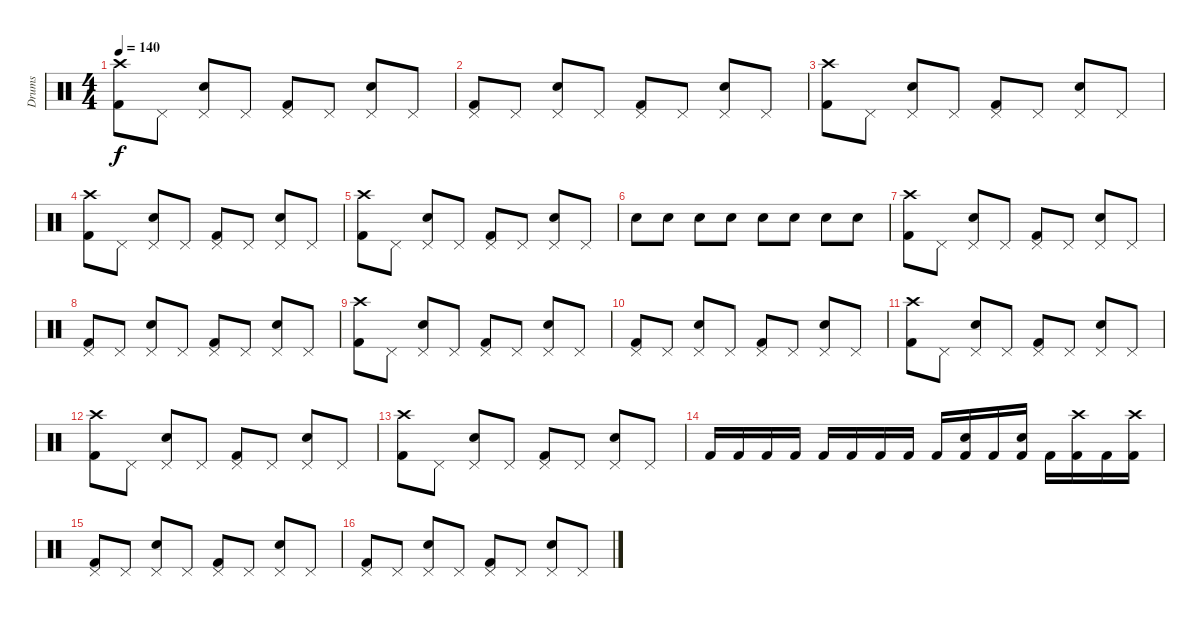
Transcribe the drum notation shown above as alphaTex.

\track ("Drums" "Drums") {instrument percussion}
\staff {score}
\articulation defaults
\ts (4 4)
\tempo 140
\clef neutral
\ks c
("Crash high (hit)" "Kick (hit) 2").8{dy f} "Pedal Hi-Hat (hit)".8 ("Pedal Hi-Hat (hit)" "Snare (hit) 2").8 "Pedal Hi-Hat (hit)".8 ("Pedal Hi-Hat (hit)" "Kick (hit) 2").8 "Pedal Hi-Hat (hit)".8 ("Pedal Hi-Hat (hit)" "Snare (hit) 2").8 "Pedal Hi-Hat (hit)".8 |
("Pedal Hi-Hat (hit)" "Kick (hit) 2").8 "Pedal Hi-Hat (hit)".8 ("Pedal Hi-Hat (hit)" "Snare (hit) 2").8 "Pedal Hi-Hat (hit)".8 ("Pedal Hi-Hat (hit)" "Kick (hit) 2").8 "Pedal Hi-Hat (hit)".8 ("Pedal Hi-Hat (hit)" "Snare (hit) 2").8 "Pedal Hi-Hat (hit)".8 |
("Crash high (hit)" "Kick (hit) 2").8 "Pedal Hi-Hat (hit)".8 ("Pedal Hi-Hat (hit)" "Snare (hit) 2").8 "Pedal Hi-Hat (hit)".8 ("Pedal Hi-Hat (hit)" "Kick (hit) 2").8 "Pedal Hi-Hat (hit)".8 ("Pedal Hi-Hat (hit)" "Snare (hit) 2").8 "Pedal Hi-Hat (hit)".8 |
("Crash high (hit)" "Kick (hit) 2").8 "Pedal Hi-Hat (hit)".8 ("Pedal Hi-Hat (hit)" "Snare (hit) 2").8 "Pedal Hi-Hat (hit)".8 ("Pedal Hi-Hat (hit)" "Kick (hit) 2").8 "Pedal Hi-Hat (hit)".8 ("Pedal Hi-Hat (hit)" "Snare (hit) 2").8 "Pedal Hi-Hat (hit)".8 |
("Crash high (hit)" "Kick (hit) 2").8 "Pedal Hi-Hat (hit)".8 ("Pedal Hi-Hat (hit)" "Snare (hit) 2").8 "Pedal Hi-Hat (hit)".8 ("Pedal Hi-Hat (hit)" "Kick (hit) 2").8 "Pedal Hi-Hat (hit)".8 ("Pedal Hi-Hat (hit)" "Snare (hit) 2").8 "Pedal Hi-Hat (hit)".8 |
"Snare (hit) 2".8 "Snare (hit) 2".8 "Snare (hit) 2".8 "Snare (hit) 2".8 "Snare (hit) 2".8 "Snare (hit) 2".8 "Snare (hit) 2".8 "Snare (hit) 2".8 |
("Crash high (hit)" "Kick (hit) 2").8 "Pedal Hi-Hat (hit)".8 ("Pedal Hi-Hat (hit)" "Snare (hit) 2").8 "Pedal Hi-Hat (hit)".8 ("Pedal Hi-Hat (hit)" "Kick (hit) 2").8 "Pedal Hi-Hat (hit)".8 ("Pedal Hi-Hat (hit)" "Snare (hit) 2").8 "Pedal Hi-Hat (hit)".8 |
("Pedal Hi-Hat (hit)" "Kick (hit) 2").8 "Pedal Hi-Hat (hit)".8 ("Pedal Hi-Hat (hit)" "Snare (hit) 2").8 "Pedal Hi-Hat (hit)".8 ("Pedal Hi-Hat (hit)" "Kick (hit) 2").8 "Pedal Hi-Hat (hit)".8 ("Pedal Hi-Hat (hit)" "Snare (hit) 2").8 "Pedal Hi-Hat (hit)".8 |
("Crash high (hit)" "Kick (hit) 2").8 "Pedal Hi-Hat (hit)".8 ("Pedal Hi-Hat (hit)" "Snare (hit) 2").8 "Pedal Hi-Hat (hit)".8 ("Pedal Hi-Hat (hit)" "Kick (hit) 2").8 "Pedal Hi-Hat (hit)".8 ("Pedal Hi-Hat (hit)" "Snare (hit) 2").8 "Pedal Hi-Hat (hit)".8 |
("Pedal Hi-Hat (hit)" "Kick (hit) 2").8 "Pedal Hi-Hat (hit)".8 ("Pedal Hi-Hat (hit)" "Snare (hit) 2").8 "Pedal Hi-Hat (hit)".8 ("Pedal Hi-Hat (hit)" "Kick (hit) 2").8 "Pedal Hi-Hat (hit)".8 ("Pedal Hi-Hat (hit)" "Snare (hit) 2").8 "Pedal Hi-Hat (hit)".8 |
("Crash high (hit)" "Kick (hit) 2").8 "Pedal Hi-Hat (hit)".8 ("Pedal Hi-Hat (hit)" "Snare (hit) 2").8 "Pedal Hi-Hat (hit)".8 ("Pedal Hi-Hat (hit)" "Kick (hit) 2").8 "Pedal Hi-Hat (hit)".8 ("Pedal Hi-Hat (hit)" "Snare (hit) 2").8 "Pedal Hi-Hat (hit)".8 |
("Crash high (hit)" "Kick (hit) 2").8 "Pedal Hi-Hat (hit)".8 ("Pedal Hi-Hat (hit)" "Snare (hit) 2").8 "Pedal Hi-Hat (hit)".8 ("Pedal Hi-Hat (hit)" "Kick (hit) 2").8 "Pedal Hi-Hat (hit)".8 ("Pedal Hi-Hat (hit)" "Snare (hit) 2").8 "Pedal Hi-Hat (hit)".8 |
("Crash high (hit)" "Kick (hit) 2").8 "Pedal Hi-Hat (hit)".8 ("Pedal Hi-Hat (hit)" "Snare (hit) 2").8 "Pedal Hi-Hat (hit)".8 ("Pedal Hi-Hat (hit)" "Kick (hit) 2").8 "Pedal Hi-Hat (hit)".8 ("Pedal Hi-Hat (hit)" "Snare (hit) 2").8 "Pedal Hi-Hat (hit)".8 |
"Kick (hit) 2".16 "Kick (hit) 2".16 "Kick (hit) 2".16 "Kick (hit) 2".16 "Kick (hit) 2".16 "Kick (hit) 2".16 "Kick (hit) 2".16 "Kick (hit) 2".16 "Kick (hit) 2".16 ("Kick (hit) 2" "Snare (hit) 2").16 "Kick (hit) 2".16 ("Kick (hit) 2" "Snare (hit) 2").16 "Kick (hit) 2".16 ("Kick (hit) 2" "Crash high (hit)").16 "Kick (hit) 2".16 ("Kick (hit) 2" "Crash high (hit)").16 |
("Pedal Hi-Hat (hit)" "Kick (hit) 2").8 "Pedal Hi-Hat (hit)".8 ("Pedal Hi-Hat (hit)" "Snare (hit) 2").8 "Pedal Hi-Hat (hit)".8 ("Pedal Hi-Hat (hit)" "Kick (hit) 2").8 "Pedal Hi-Hat (hit)".8 ("Pedal Hi-Hat (hit)" "Snare (hit) 2").8 "Pedal Hi-Hat (hit)".8 |
("Pedal Hi-Hat (hit)" "Kick (hit) 2").8 "Pedal Hi-Hat (hit)".8 ("Pedal Hi-Hat (hit)" "Snare (hit) 2").8 "Pedal Hi-Hat (hit)".8 ("Pedal Hi-Hat (hit)" "Kick (hit) 2").8 "Pedal Hi-Hat (hit)".8 ("Pedal Hi-Hat (hit)" "Snare (hit) 2").8 "Pedal Hi-Hat (hit)".8
